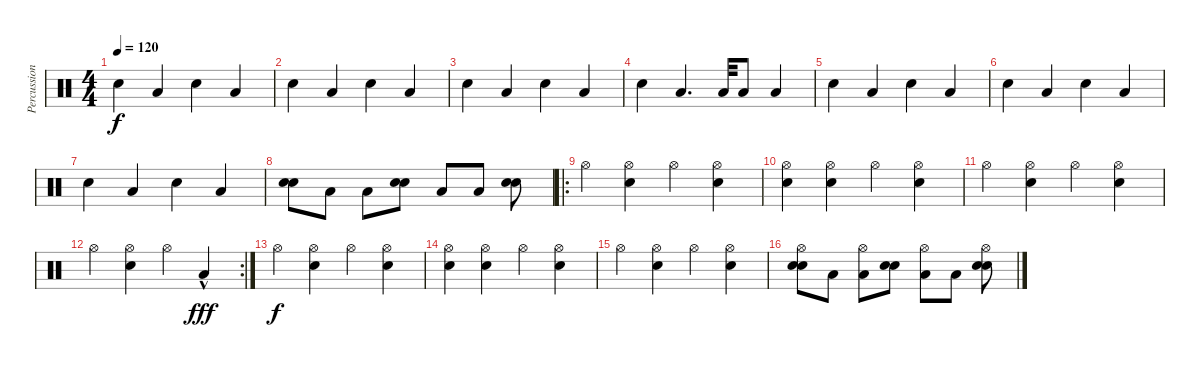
\track ("Percussion" "Percussion") {instrument percussion}
\staff {score}
\articulation defaults
\ts (4 4)
\tempo 120
\clef neutral
\ks c "Snare (hit)".4{dy f} "Low Tom (hit)".4 "Snare (hit)".4 "Low Tom (hit)".4
|
"Snare (hit)".4 "Low Tom (hit)".4 "Snare (hit)".4 "Low Tom (hit)".4 |
"Snare (hit)".4 "Low Tom (hit)".4 "Snare (hit)".4 "Low Tom (hit)".4 |
"Snare (hit)".4 "Low Tom (hit)".4{d} "Low Tom (hit)".32 "Low Tom (hit)".8 "Low Tom (hit)".4 |
"Snare (hit)".4 "Low Tom (hit)".4 "Snare (hit)".4 "Low Tom (hit)".4 |
"Snare (hit)".4 "Low Tom (hit)".4 "Snare (hit)".4 "Low Tom (hit)".4 |
"Snare (hit)".4 "Low Tom (hit)".4 "Snare (hit)".4 "Low Tom (hit)".4 |
("Snare (hit) 2" "Electric Snare (hit)").8 "Low Tom (hit)".8 "Low Tom (hit)".8 ("Snare (hit) 2" "Electric Snare (hit)").8 "Low Tom (hit)".8 "Low Tom (hit)".8 ("Snare (hit) 2" "Electric Snare (hit)").8 |
\ro "Hi-Hat (open)".4
("Hi-Hat (open)" "Snare (hit) 2").4 "Hi-Hat (open)".4 ("Hi-Hat (open)" "Snare (hit) 2").4 |
("Hi-Hat (open)" "Snare (hit)").4 ("Hi-Hat (open)" "Snare (hit) 2").4 "Hi-Hat (open)".4 ("Hi-Hat (open)" "Snare (hit) 2").4 |
"Hi-Hat (open)".4 ("Hi-Hat (open)" "Snare (hit) 2").4 "Hi-Hat (open)".4 ("Hi-Hat (open)" "Snare (hit) 2").4 |
\rc 2 "Hi-Hat (open)".4
("Hi-Hat (open)" "Snare (hit) 2").4 "Hi-Hat (open)".4 "Low Tom (hit)"{hac}.4{dy fff} |
"Hi-Hat (open)".4{dy f} ("Hi-Hat (open)" "Snare (hit) 2").4 "Hi-Hat (open)".4 ("Hi-Hat (open)" "Snare (hit) 2").4 |
("Hi-Hat (open)" "Snare (hit)").4 ("Hi-Hat (open)" "Snare (hit) 2").4 "Hi-Hat (open)".4 ("Hi-Hat (open)" "Snare (hit) 2").4 |
"Hi-Hat (open)".4 ("Hi-Hat (open)" "Snare (hit) 2").4 "Hi-Hat (open)".4 ("Hi-Hat (open)" "Snare (hit) 2").4 |
("Hi-Hat (open)" "Snare (hit) 2" "Electric Snare (hit)").8 "Low Tom (hit)".8 ("Hi-Hat (open)" "Low Tom (hit)").8 ("Snare (hit) 2" "Electric Snare (hit)").8 ("Hi-Hat (open)" "Low Tom (hit)").8 "Low Tom (hit)".8 ("Hi-Hat (open)" "Snare (hit) 2" "Electric Snare (hit)").8
